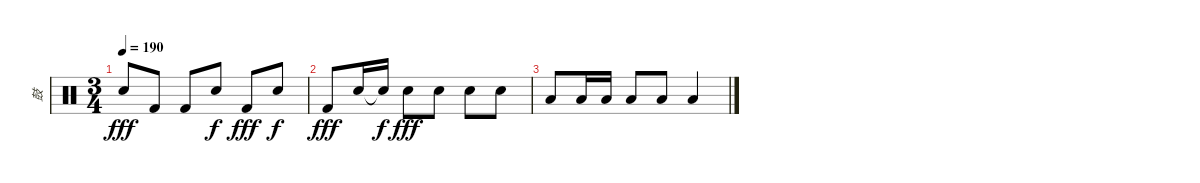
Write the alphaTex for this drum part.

\track ("鼓" "鼓") {instrument percussion}
\staff {score}
\articulation defaults
\ts (3 4)
\tempo 190
\clef neutral
\ks c "Electric Snare (hit)".8{dy fff} "Kick (hit) 2".8 "Kick (hit) 2".8 "Electric Snare (hit)".8{dy f} "Kick (hit) 2".8{dy fff} "Electric Snare (hit)".8{dy f}
|
"Kick (hit) 2".8{dy fff} "Electric Snare (hit)".16 "Electric Snare (hit)"{t}.16{dy f} "Electric Snare (hit)".8{dy fff} "Electric Snare (hit)".8 "Electric Snare (hit)".8 "Electric Snare (hit)".8 |
"Low Floor Tom (hit)".8 "Low Floor Tom (hit)".16 "Low Floor Tom (hit)".16 "Low Floor Tom (hit)".8 "Low Floor Tom (hit)".8 "Low Floor Tom (hit)".4
